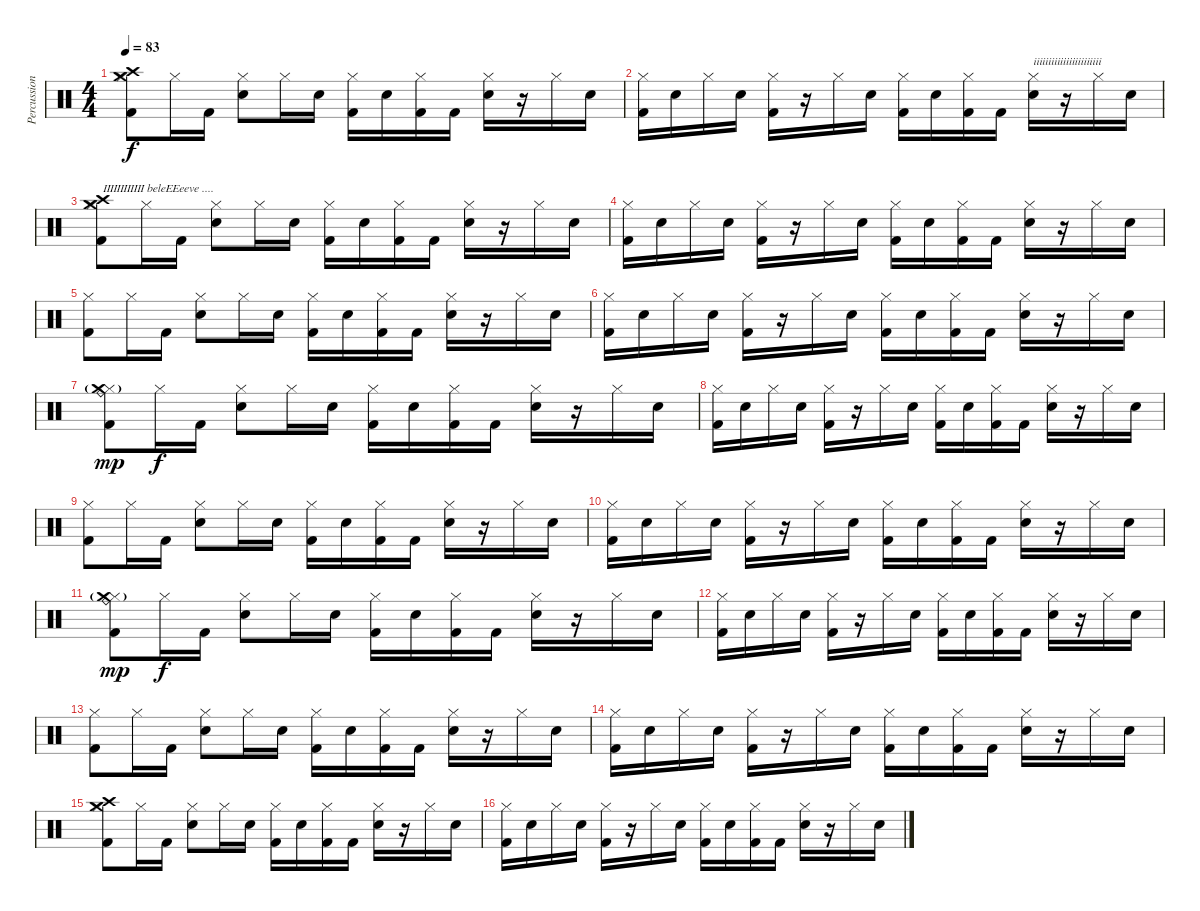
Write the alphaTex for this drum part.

\track ("Percussions" "Percussion") {instrument percussion}
\staff {score}
\articulation defaults
\ts (4 4)
\tempo 83
\clef neutral
\ks c
("Hi-Hat (closed)" "Kick (hit) 2" "Crash high (hit)" "Crash medium (hit)").8{dy f} "Hi-Hat (closed)".16 "Kick (hit) 2".16 ("Hi-Hat (closed)" "Snare (hit) 2").8 "Hi-Hat (closed)".16 "Snare (hit) 2".16 ("Hi-Hat (closed)" "Kick (hit) 2").16 "Snare (hit) 2".16 ("Hi-Hat (closed)" "Kick (hit) 2").16 "Kick (hit) 2".16 ("Hi-Hat (closed)" "Snare (hit) 2").16 r.16 "Hi-Hat (closed)".16 "Snare (hit) 2".16 |
("Hi-Hat (closed)" "Kick (hit) 2").16 "Snare (hit) 2".16 "Hi-Hat (closed)".16 "Snare (hit) 2".16 ("Hi-Hat (closed)" "Kick (hit) 2").16 r.16 "Hi-Hat (closed)".16 "Snare (hit) 2".16 ("Hi-Hat (closed)" "Kick (hit) 2").16 "Snare (hit) 2".16 ("Hi-Hat (closed)" "Kick (hit) 2").16 "Kick (hit) 2".16 ("Hi-Hat (closed)" "Snare (hit) 2").16{txt "iiiiiiiiiiiiiiiiiiiiiii"} r.16 "Hi-Hat (closed)".16 "Snare (hit) 2".16 |
("Hi-Hat (closed)" "Kick (hit) 2" "Crash high (hit)" "Crash medium (hit)").8{txt "IIIIIIIIIIII beleEEeeve ...."} "Hi-Hat (closed)".16 "Kick (hit) 2".16 ("Hi-Hat (closed)" "Snare (hit) 2").8 "Hi-Hat (closed)".16 "Snare (hit) 2".16 ("Hi-Hat (closed)" "Kick (hit) 2").16 "Snare (hit) 2".16 ("Hi-Hat (closed)" "Kick (hit) 2").16 "Kick (hit) 2".16 ("Hi-Hat (closed)" "Snare (hit) 2").16 r.16 "Hi-Hat (closed)".16 "Snare (hit) 2".16 |
("Hi-Hat (closed)" "Kick (hit) 2").16 "Snare (hit) 2".16 "Hi-Hat (closed)".16 "Snare (hit) 2".16 ("Hi-Hat (closed)" "Kick (hit) 2").16 r.16 "Hi-Hat (closed)".16 "Snare (hit) 2".16 ("Hi-Hat (closed)" "Kick (hit) 2").16 "Snare (hit) 2".16 ("Hi-Hat (closed)" "Kick (hit) 2").16 "Kick (hit) 2".16 ("Hi-Hat (closed)" "Snare (hit) 2").16 r.16 "Hi-Hat (closed)".16 "Snare (hit) 2".16 |
("Hi-Hat (closed)" "Kick (hit) 2").8 "Hi-Hat (closed)".16 "Kick (hit) 2".16 ("Hi-Hat (closed)" "Snare (hit) 2").8 "Hi-Hat (closed)".16 "Snare (hit) 2".16 ("Hi-Hat (closed)" "Kick (hit) 2").16 "Snare (hit) 2".16 ("Hi-Hat (closed)" "Kick (hit) 2").16 "Kick (hit) 2".16 ("Hi-Hat (closed)" "Snare (hit) 2").16 r.16 "Hi-Hat (closed)".16 "Snare (hit) 2".16 |
("Hi-Hat (closed)" "Kick (hit) 2").16 "Snare (hit) 2".16 "Hi-Hat (closed)".16 "Snare (hit) 2".16 ("Hi-Hat (closed)" "Kick (hit) 2").16 r.16 "Hi-Hat (closed)".16 "Snare (hit) 2".16 ("Hi-Hat (closed)" "Kick (hit) 2").16 "Snare (hit) 2".16 ("Hi-Hat (closed)" "Kick (hit) 2").16 "Kick (hit) 2".16 ("Hi-Hat (closed)" "Snare (hit) 2").16 r.16 "Hi-Hat (closed)".16 "Snare (hit) 2".16 |
("Hi-Hat (closed)" "Kick (hit) 2" "Crash medium (hit)"{g} "Ride (bell)").8{dy mp} "Hi-Hat (closed)".16{dy f} "Kick (hit) 2".16 ("Hi-Hat (closed)" "Snare (hit) 2").8 "Hi-Hat (closed)".16 "Snare (hit) 2".16 ("Hi-Hat (closed)" "Kick (hit) 2").16 "Snare (hit) 2".16 ("Hi-Hat (closed)" "Kick (hit) 2").16 "Kick (hit) 2".16 ("Hi-Hat (closed)" "Snare (hit) 2").16 r.16 "Hi-Hat (closed)".16 "Snare (hit) 2".16 |
("Hi-Hat (closed)" "Kick (hit) 2").16 "Snare (hit) 2".16 "Hi-Hat (closed)".16 "Snare (hit) 2".16 ("Hi-Hat (closed)" "Kick (hit) 2").16 r.16 "Hi-Hat (closed)".16 "Snare (hit) 2".16 ("Hi-Hat (closed)" "Kick (hit) 2").16 "Snare (hit) 2".16 ("Hi-Hat (closed)" "Kick (hit) 2").16 "Kick (hit) 2".16 ("Hi-Hat (closed)" "Snare (hit) 2").16 r.16 "Hi-Hat (closed)".16 "Snare (hit) 2".16 |
("Hi-Hat (closed)" "Kick (hit) 2").8 "Hi-Hat (closed)".16 "Kick (hit) 2".16 ("Hi-Hat (closed)" "Snare (hit) 2").8 "Hi-Hat (closed)".16 "Snare (hit) 2".16 ("Hi-Hat (closed)" "Kick (hit) 2").16 "Snare (hit) 2".16 ("Hi-Hat (closed)" "Kick (hit) 2").16 "Kick (hit) 2".16 ("Hi-Hat (closed)" "Snare (hit) 2").16 r.16 "Hi-Hat (closed)".16 "Snare (hit) 2".16 |
("Hi-Hat (closed)" "Kick (hit) 2").16 "Snare (hit) 2".16 "Hi-Hat (closed)".16 "Snare (hit) 2".16 ("Hi-Hat (closed)" "Kick (hit) 2").16 r.16 "Hi-Hat (closed)".16 "Snare (hit) 2".16 ("Hi-Hat (closed)" "Kick (hit) 2").16 "Snare (hit) 2".16 ("Hi-Hat (closed)" "Kick (hit) 2").16 "Kick (hit) 2".16 ("Hi-Hat (closed)" "Snare (hit) 2").16 r.16 "Hi-Hat (closed)".16 "Snare (hit) 2".16 |
("Hi-Hat (closed)" "Kick (hit) 2" "Crash medium (hit)"{g} "Ride (bell)").8{dy mp} "Hi-Hat (closed)".16{dy f} "Kick (hit) 2".16 ("Hi-Hat (closed)" "Snare (hit) 2").8 "Hi-Hat (closed)".16 "Snare (hit) 2".16 ("Hi-Hat (closed)" "Kick (hit) 2").16 "Snare (hit) 2".16 ("Hi-Hat (closed)" "Kick (hit) 2").16 "Kick (hit) 2".16 ("Hi-Hat (closed)" "Snare (hit) 2").16 r.16 "Hi-Hat (closed)".16 "Snare (hit) 2".16 |
("Hi-Hat (closed)" "Kick (hit) 2").16 "Snare (hit) 2".16 "Hi-Hat (closed)".16 "Snare (hit) 2".16 ("Hi-Hat (closed)" "Kick (hit) 2").16 r.16 "Hi-Hat (closed)".16 "Snare (hit) 2".16 ("Hi-Hat (closed)" "Kick (hit) 2").16 "Snare (hit) 2".16 ("Hi-Hat (closed)" "Kick (hit) 2").16 "Kick (hit) 2".16 ("Hi-Hat (closed)" "Snare (hit) 2").16 r.16 "Hi-Hat (closed)".16 "Snare (hit) 2".16 |
("Hi-Hat (closed)" "Kick (hit) 2").8 "Hi-Hat (closed)".16 "Kick (hit) 2".16 ("Hi-Hat (closed)" "Snare (hit) 2").8 "Hi-Hat (closed)".16 "Snare (hit) 2".16 ("Hi-Hat (closed)" "Kick (hit) 2").16 "Snare (hit) 2".16 ("Hi-Hat (closed)" "Kick (hit) 2").16 "Kick (hit) 2".16 ("Hi-Hat (closed)" "Snare (hit) 2").16 r.16 "Hi-Hat (closed)".16 "Snare (hit) 2".16 |
("Hi-Hat (closed)" "Kick (hit) 2").16 "Snare (hit) 2".16 "Hi-Hat (closed)".16 "Snare (hit) 2".16 ("Hi-Hat (closed)" "Kick (hit) 2").16 r.16 "Hi-Hat (closed)".16 "Snare (hit) 2".16 ("Hi-Hat (closed)" "Kick (hit) 2").16 "Snare (hit) 2".16 ("Hi-Hat (closed)" "Kick (hit) 2").16 "Kick (hit) 2".16 ("Hi-Hat (closed)" "Snare (hit) 2").16 r.16 "Hi-Hat (closed)".16 "Snare (hit) 2".16 |
("Hi-Hat (closed)" "Kick (hit) 2" "Crash high (hit)" "Crash medium (hit)").8 "Hi-Hat (closed)".16 "Kick (hit) 2".16 ("Hi-Hat (closed)" "Snare (hit) 2").8 "Hi-Hat (closed)".16 "Snare (hit) 2".16 ("Hi-Hat (closed)" "Kick (hit) 2").16 "Snare (hit) 2".16 ("Hi-Hat (closed)" "Kick (hit) 2").16 "Kick (hit) 2".16 ("Hi-Hat (closed)" "Snare (hit) 2").16 r.16 "Hi-Hat (closed)".16 "Snare (hit) 2".16 |
("Hi-Hat (closed)" "Kick (hit) 2").16 "Snare (hit) 2".16 "Hi-Hat (closed)".16 "Snare (hit) 2".16 ("Hi-Hat (closed)" "Kick (hit) 2").16 r.16 "Hi-Hat (closed)".16 "Snare (hit) 2".16 ("Hi-Hat (closed)" "Kick (hit) 2").16 "Snare (hit) 2".16 ("Hi-Hat (closed)" "Kick (hit) 2").16 "Kick (hit) 2".16 ("Hi-Hat (closed)" "Snare (hit) 2").16 r.16 "Hi-Hat (closed)".16 "Snare (hit) 2".16
